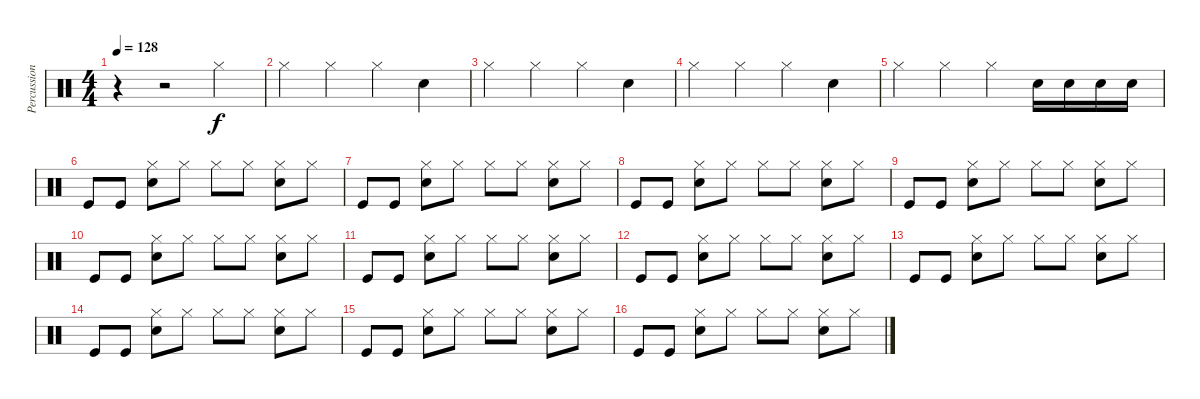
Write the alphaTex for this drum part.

\track ("Percussion" "Percussion") {instrument percussion}
\staff {score}
\articulation defaults
\ts (4 4)
\tempo 128
\clef neutral
\ks c
r.4{dy f} r.2 "Hi-Hat (closed)".4 |
"Hi-Hat (closed)".4 "Hi-Hat (closed)".4 "Hi-Hat (closed)".4 "Snare (hit) 2".4 |
"Hi-Hat (closed)".4 "Hi-Hat (closed)".4 "Hi-Hat (closed)".4 "Snare (hit) 2".4 |
"Hi-Hat (closed)".4 "Hi-Hat (closed)".4 "Hi-Hat (closed)".4 "Snare (hit) 2".4 |
"Hi-Hat (closed)".4 "Hi-Hat (closed)".4 "Hi-Hat (closed)".4 "Snare (hit) 2".16 "Snare (hit) 2".16 "Snare (hit) 2".16 "Snare (hit) 2".16 |
"Kick (hit)".8 "Kick (hit)".8 ("Hi-Hat (closed)" "Snare (hit) 2").8 "Hi-Hat (closed)".8 "Hi-Hat (closed)".8 "Hi-Hat (closed)".8 ("Hi-Hat (closed)" "Snare (hit) 2").8 "Hi-Hat (closed)".8 |
"Kick (hit)".8 "Kick (hit)".8 ("Hi-Hat (closed)" "Snare (hit) 2").8 "Hi-Hat (closed)".8 "Hi-Hat (closed)".8 "Hi-Hat (closed)".8 ("Hi-Hat (closed)" "Snare (hit) 2").8 "Hi-Hat (closed)".8 |
"Kick (hit)".8 "Kick (hit)".8 ("Hi-Hat (closed)" "Snare (hit) 2").8 "Hi-Hat (closed)".8 "Hi-Hat (closed)".8 "Hi-Hat (closed)".8 ("Hi-Hat (closed)" "Snare (hit) 2").8 "Hi-Hat (closed)".8 |
"Kick (hit)".8 "Kick (hit)".8 ("Hi-Hat (closed)" "Snare (hit) 2").8 "Hi-Hat (closed)".8 "Hi-Hat (closed)".8 "Hi-Hat (closed)".8 ("Hi-Hat (closed)" "Snare (hit) 2").8 "Hi-Hat (closed)".8 |
"Kick (hit)".8 "Kick (hit)".8 ("Hi-Hat (closed)" "Snare (hit) 2").8 "Hi-Hat (closed)".8 "Hi-Hat (closed)".8 "Hi-Hat (closed)".8 ("Hi-Hat (closed)" "Snare (hit) 2").8 "Hi-Hat (closed)".8 |
"Kick (hit)".8 "Kick (hit)".8 ("Hi-Hat (closed)" "Snare (hit) 2").8 "Hi-Hat (closed)".8 "Hi-Hat (closed)".8 "Hi-Hat (closed)".8 ("Hi-Hat (closed)" "Snare (hit) 2").8 "Hi-Hat (closed)".8 |
"Kick (hit)".8 "Kick (hit)".8 ("Hi-Hat (closed)" "Snare (hit) 2").8 "Hi-Hat (closed)".8 "Hi-Hat (closed)".8 "Hi-Hat (closed)".8 ("Hi-Hat (closed)" "Snare (hit) 2").8 "Hi-Hat (closed)".8 |
"Kick (hit)".8 "Kick (hit)".8 ("Hi-Hat (closed)" "Snare (hit) 2").8 "Hi-Hat (closed)".8 "Hi-Hat (closed)".8 "Hi-Hat (closed)".8 ("Hi-Hat (closed)" "Snare (hit) 2").8 "Hi-Hat (closed)".8 |
"Kick (hit)".8 "Kick (hit)".8 ("Hi-Hat (closed)" "Snare (hit) 2").8 "Hi-Hat (closed)".8 "Hi-Hat (closed)".8 "Hi-Hat (closed)".8 ("Hi-Hat (closed)" "Snare (hit) 2").8 "Hi-Hat (closed)".8 |
"Kick (hit)".8 "Kick (hit)".8 ("Hi-Hat (closed)" "Snare (hit) 2").8 "Hi-Hat (closed)".8 "Hi-Hat (closed)".8 "Hi-Hat (closed)".8 ("Hi-Hat (closed)" "Snare (hit) 2").8 "Hi-Hat (closed)".8 |
"Kick (hit)".8 "Kick (hit)".8 ("Hi-Hat (closed)" "Snare (hit) 2").8 "Hi-Hat (closed)".8 "Hi-Hat (closed)".8 "Hi-Hat (closed)".8 ("Hi-Hat (closed)" "Snare (hit) 2").8 "Hi-Hat (closed)".8
